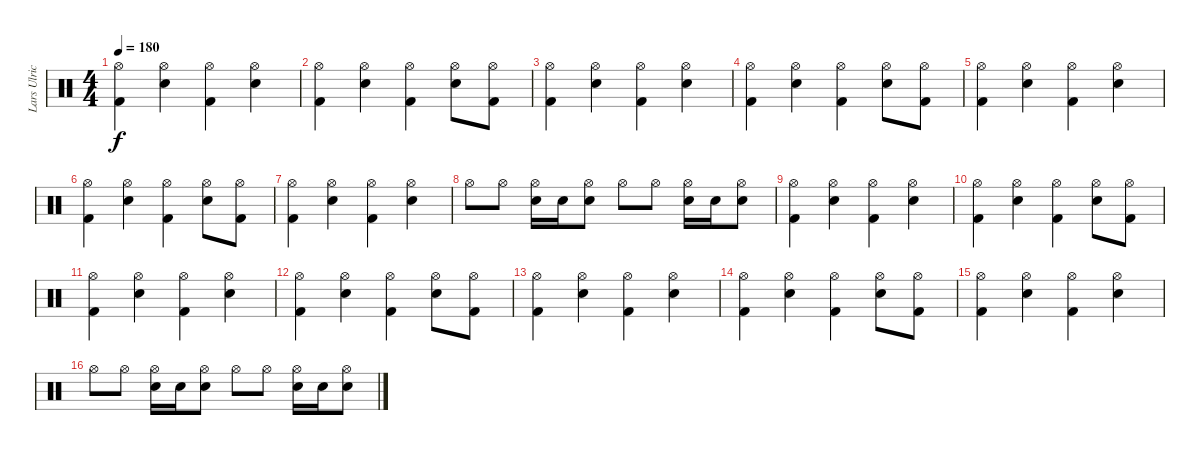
\track ("Lars Ulrich" "Lars Ulric") {instrument percussion}
\staff {score}
\articulation defaults
\ts (4 4)
\tempo 180
\clef neutral
\ks c
("Hi-Hat (open)" "Kick (hit) 2").4{dy f} ("Hi-Hat (open)" "Electric Snare (hit)").4 ("Hi-Hat (open)" "Kick (hit) 2").4 ("Hi-Hat (open)" "Electric Snare (hit)").4 |
("Hi-Hat (open)" "Kick (hit) 2").4 ("Hi-Hat (open)" "Electric Snare (hit)").4 ("Hi-Hat (open)" "Kick (hit) 2").4 ("Hi-Hat (open)" "Electric Snare (hit)").8 ("Hi-Hat (open)" "Kick (hit) 2").8 |
("Hi-Hat (open)" "Kick (hit) 2").4 ("Hi-Hat (open)" "Electric Snare (hit)").4 ("Hi-Hat (open)" "Kick (hit) 2").4 ("Hi-Hat (open)" "Electric Snare (hit)").4 |
("Hi-Hat (open)" "Kick (hit) 2").4 ("Hi-Hat (open)" "Electric Snare (hit)").4 ("Hi-Hat (open)" "Kick (hit) 2").4 ("Hi-Hat (open)" "Electric Snare (hit)").8 ("Hi-Hat (open)" "Kick (hit) 2").8 |
("Hi-Hat (open)" "Kick (hit) 2").4 ("Hi-Hat (open)" "Electric Snare (hit)").4 ("Hi-Hat (open)" "Kick (hit) 2").4 ("Hi-Hat (open)" "Electric Snare (hit)").4 |
("Hi-Hat (open)" "Kick (hit) 2").4 ("Hi-Hat (open)" "Electric Snare (hit)").4 ("Hi-Hat (open)" "Kick (hit) 2").4 ("Hi-Hat (open)" "Electric Snare (hit)").8 ("Hi-Hat (open)" "Kick (hit) 2").8 |
("Hi-Hat (open)" "Kick (hit) 2").4 ("Hi-Hat (open)" "Electric Snare (hit)").4 ("Hi-Hat (open)" "Kick (hit) 2").4 ("Hi-Hat (open)" "Electric Snare (hit)").4 |
"Hi-Hat (open)".8 "Hi-Hat (open)".8 ("Hi-Hat (open)" "Electric Snare (hit)").16 "Electric Snare (hit)".16 ("Hi-Hat (open)" "Electric Snare (hit)").8 "Hi-Hat (open)".8 "Hi-Hat (open)".8 ("Hi-Hat (open)" "Electric Snare (hit)").16 "Electric Snare (hit)".16 ("Hi-Hat (open)" "Electric Snare (hit)").8 |
("Hi-Hat (open)" "Kick (hit) 2").4 ("Hi-Hat (open)" "Electric Snare (hit)").4 ("Hi-Hat (open)" "Kick (hit) 2").4 ("Hi-Hat (open)" "Electric Snare (hit)").4 |
("Hi-Hat (open)" "Kick (hit) 2").4 ("Hi-Hat (open)" "Electric Snare (hit)").4 ("Hi-Hat (open)" "Kick (hit) 2").4 ("Hi-Hat (open)" "Electric Snare (hit)").8 ("Hi-Hat (open)" "Kick (hit) 2").8 |
("Hi-Hat (open)" "Kick (hit) 2").4 ("Hi-Hat (open)" "Electric Snare (hit)").4 ("Hi-Hat (open)" "Kick (hit) 2").4 ("Hi-Hat (open)" "Electric Snare (hit)").4 |
("Hi-Hat (open)" "Kick (hit) 2").4 ("Hi-Hat (open)" "Electric Snare (hit)").4 ("Hi-Hat (open)" "Kick (hit) 2").4 ("Hi-Hat (open)" "Electric Snare (hit)").8 ("Hi-Hat (open)" "Kick (hit) 2").8 |
("Hi-Hat (open)" "Kick (hit) 2").4 ("Hi-Hat (open)" "Electric Snare (hit)").4 ("Hi-Hat (open)" "Kick (hit) 2").4 ("Hi-Hat (open)" "Electric Snare (hit)").4 |
("Hi-Hat (open)" "Kick (hit) 2").4 ("Hi-Hat (open)" "Electric Snare (hit)").4 ("Hi-Hat (open)" "Kick (hit) 2").4 ("Hi-Hat (open)" "Electric Snare (hit)").8 ("Hi-Hat (open)" "Kick (hit) 2").8 |
("Hi-Hat (open)" "Kick (hit) 2").4 ("Hi-Hat (open)" "Electric Snare (hit)").4 ("Hi-Hat (open)" "Kick (hit) 2").4 ("Hi-Hat (open)" "Electric Snare (hit)").4 |
"Hi-Hat (open)".8 "Hi-Hat (open)".8 ("Hi-Hat (open)" "Electric Snare (hit)").16 "Electric Snare (hit)".16 ("Hi-Hat (open)" "Electric Snare (hit)").8 "Hi-Hat (open)".8 "Hi-Hat (open)".8 ("Hi-Hat (open)" "Electric Snare (hit)").16 "Electric Snare (hit)".16 ("Hi-Hat (open)" "Electric Snare (hit)").8
